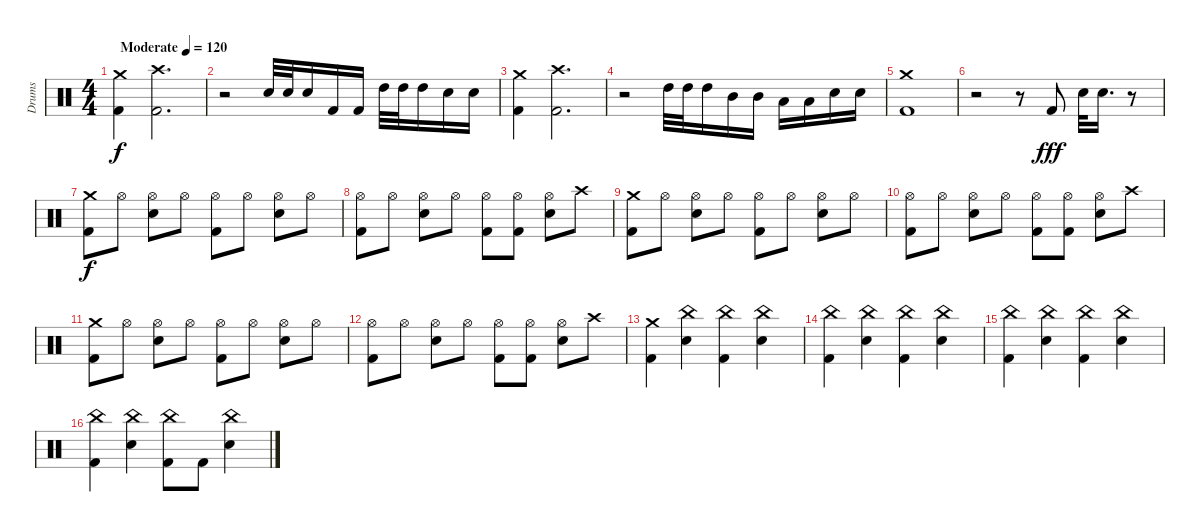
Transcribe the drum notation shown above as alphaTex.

\track ("Drums" "Drums") {instrument percussion}
\staff {score}
\articulation defaults
\ts (4 4)
\tempo (120 "Moderate")
\clef neutral
\ks c
("Kick (hit) 2" "Crash medium (hit)").4{dy f} ("Kick (hit) 2" "Crash high (hit)").2{d} |
r.2 "Snare (hit) 2".32 "Snare (hit) 2".32 "Snare (hit) 2".16 "Kick (hit) 2".16 "Kick (hit) 2".16 "High Tom (hit)".32 "High Tom (hit)".32 "High Tom (hit)".16 "Snare (hit) 2".16 "Snare (hit) 2".16 |
("Kick (hit) 2" "Crash medium (hit)").4 ("Kick (hit) 2" "Crash high (hit)").2{d} |
r.2 "High Tom (hit)".32 "High Tom (hit)".32 "High Tom (hit)".16 "Mid Tom (hit)".16 "Mid Tom (hit)".16 "Low Tom (hit)".16 "Low Tom (hit)".16 "Snare (hit) 2".16 "Snare (hit) 2".16 |
("Kick (hit) 2" "Crash medium (hit)").1 |
r.2 r.8 "Kick (hit) 2".8{dy fff} "Snare (hit) 2".32 "Snare (hit) 2".16{d} r.8 |
("Kick (hit) 2" "Crash medium (hit)").8{dy f} "Hi-Hat (open)".8 ("Snare (hit) 2" "Hi-Hat (open)").8 "Hi-Hat (open)".8 ("Kick (hit) 2" "Hi-Hat (open)").8 "Hi-Hat (open)".8 ("Snare (hit) 2" "Hi-Hat (open)").8 "Hi-Hat (open)".8 |
("Kick (hit) 2" "Hi-Hat (open)").8 "Hi-Hat (open)".8 ("Snare (hit) 2" "Hi-Hat (open)").8 "Hi-Hat (open)".8 ("Kick (hit) 2" "Hi-Hat (open)").8 ("Kick (hit) 2" "Hi-Hat (open)").8 ("Snare (hit) 2" "Hi-Hat (open)").8 "Crash high (hit)".8 |
("Kick (hit) 2" "Crash medium (hit)").8 "Hi-Hat (open)".8 ("Snare (hit) 2" "Hi-Hat (open)").8 "Hi-Hat (open)".8 ("Kick (hit) 2" "Hi-Hat (open)").8 "Hi-Hat (open)".8 ("Snare (hit) 2" "Hi-Hat (open)").8 "Hi-Hat (open)".8 |
("Kick (hit) 2" "Hi-Hat (open)").8 "Hi-Hat (open)".8 ("Snare (hit) 2" "Hi-Hat (open)").8 "Hi-Hat (open)".8 ("Kick (hit) 2" "Hi-Hat (open)").8 ("Kick (hit) 2" "Hi-Hat (open)").8 ("Snare (hit) 2" "Hi-Hat (open)").8 "Crash high (hit)".8 |
("Kick (hit) 2" "Crash medium (hit)").8 "Hi-Hat (open)".8 ("Snare (hit) 2" "Hi-Hat (open)").8 "Hi-Hat (open)".8 ("Kick (hit) 2" "Hi-Hat (open)").8 "Hi-Hat (open)".8 ("Snare (hit) 2" "Hi-Hat (open)").8 "Hi-Hat (open)".8 |
("Kick (hit) 2" "Hi-Hat (open)").8 "Hi-Hat (open)".8 ("Snare (hit) 2" "Hi-Hat (open)").8 "Hi-Hat (open)".8 ("Kick (hit) 2" "Hi-Hat (open)").8 ("Kick (hit) 2" "Hi-Hat (open)").8 ("Snare (hit) 2" "Hi-Hat (open)").8 "Crash high (hit)".8 |
("Kick (hit) 2" "Crash medium (hit)").4 ("Snare (hit) 2" "China (hit)").4 ("Kick (hit) 2" "China (hit)").4 ("Snare (hit) 2" "China (hit)").4 |
("Kick (hit) 2" "China (hit)").4 ("Snare (hit) 2" "China (hit)").4 ("Kick (hit) 2" "China (hit)").4 ("Snare (hit) 2" "China (hit)").4 |
("Kick (hit) 2" "China (hit)").4 ("Snare (hit) 2" "China (hit)").4 ("Kick (hit) 2" "China (hit)").4 ("Snare (hit) 2" "China (hit)").4 |
("Kick (hit) 2" "China (hit)").4 ("Snare (hit) 2" "China (hit)").4 ("Kick (hit) 2" "China (hit)").8 "Kick (hit) 2".8 ("Snare (hit) 2" "China (hit)").4
